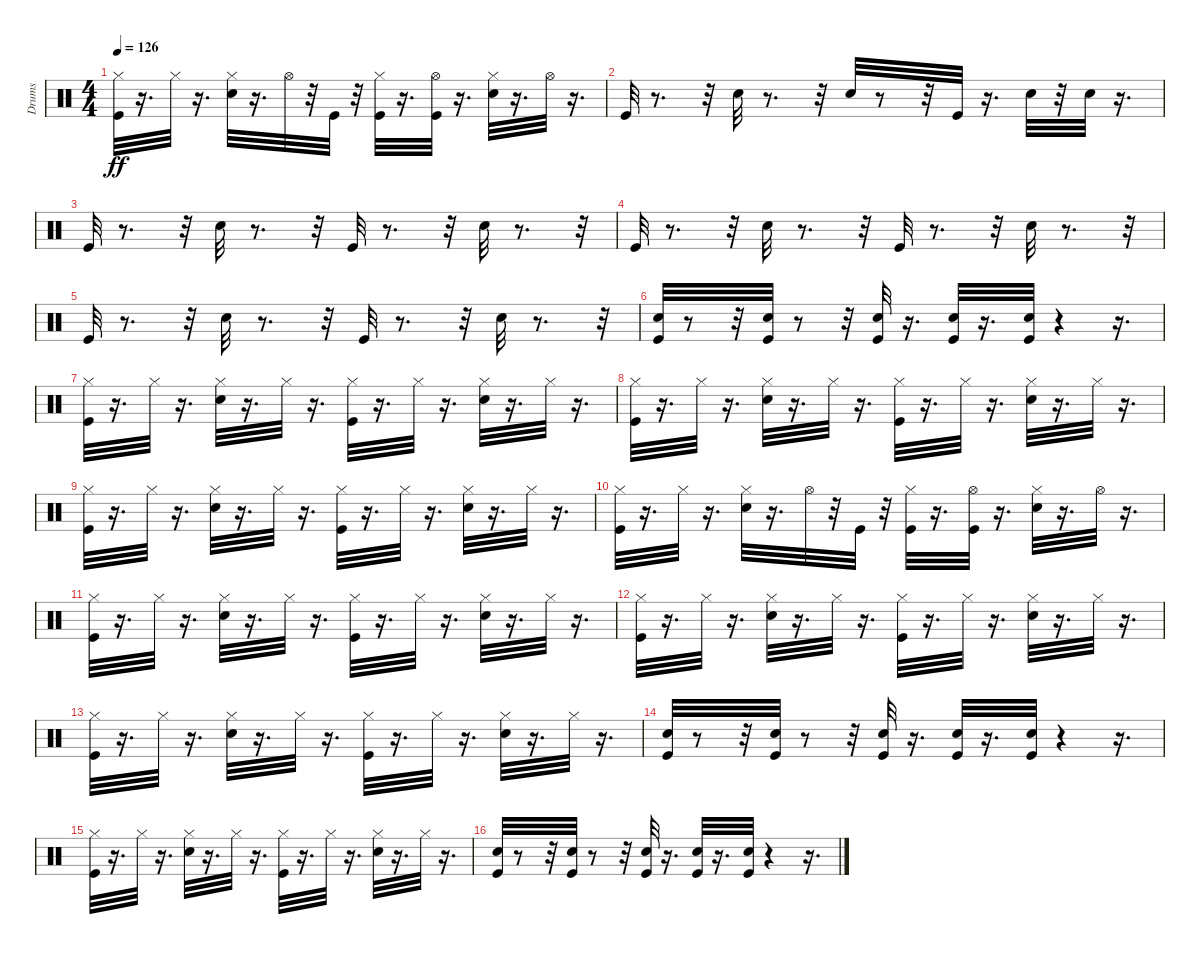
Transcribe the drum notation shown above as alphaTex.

\track ("Drums" "Drums") {instrument percussion}
\staff {score}
\articulation defaults
\ts (4 4)
\tempo 126
\clef neutral
\ks c
("Kick (hit)" "Hi-Hat (closed)").32{dy ff} r.16{d} "Hi-Hat (closed)".32 r.16{d} ("Snare (hit) 2" "Hi-Hat (closed)").32 r.16{d} "Hi-Hat (open)".32 r.32 "Kick (hit)".32 r.32 ("Kick (hit)" "Hi-Hat (closed)").32 r.16{d} ("Kick (hit)" "Hi-Hat (open)").32 r.16{d} ("Snare (hit) 2" "Hi-Hat (closed)").32 r.16{d} "Hi-Hat (open)".32 r.16{d} |
"Kick (hit)".32 r.8{d} r.32 "Snare (hit) 2".32 r.8{d} r.32 "Snare (hit) 2".32 r.8 r.32 "Kick (hit)".32 r.16{d} "Snare (hit) 2".32 r.32 "Snare (hit) 2".32 r.16{d} |
"Kick (hit)".32 r.8{d} r.32 "Snare (hit) 2".32 r.8{d} r.32 "Kick (hit)".32 r.8{d} r.32 "Snare (hit) 2".32 r.8{d} r.32 |
"Kick (hit)".32 r.8{d} r.32 "Snare (hit) 2".32 r.8{d} r.32 "Kick (hit)".32 r.8{d} r.32 "Snare (hit) 2".32 r.8{d} r.32 |
"Kick (hit)".32 r.8{d} r.32 "Snare (hit) 2".32 r.8{d} r.32 "Kick (hit)".32 r.8{d} r.32 "Snare (hit) 2".32 r.8{d} r.32 |
("Kick (hit)" "Snare (hit) 2").32 r.8 r.32 ("Kick (hit)" "Snare (hit) 2").32 r.8 r.32 ("Kick (hit)" "Snare (hit) 2").32 r.16{d} ("Kick (hit)" "Snare (hit) 2").32 r.16{d} ("Kick (hit)" "Snare (hit) 2").32 r.4 r.16{d} |
("Kick (hit)" "Hi-Hat (closed)").32 r.16{d} "Hi-Hat (closed)".32 r.16{d} ("Snare (hit) 2" "Hi-Hat (closed)").32 r.16{d} "Hi-Hat (closed)".32 r.16{d} ("Kick (hit)" "Hi-Hat (closed)").32 r.16{d} "Hi-Hat (closed)".32 r.16{d} ("Snare (hit) 2" "Hi-Hat (closed)").32 r.16{d} "Hi-Hat (closed)".32 r.16{d} |
("Kick (hit)" "Hi-Hat (closed)").32 r.16{d} "Hi-Hat (closed)".32 r.16{d} ("Snare (hit) 2" "Hi-Hat (closed)").32 r.16{d} "Hi-Hat (closed)".32 r.16{d} ("Kick (hit)" "Hi-Hat (closed)").32 r.16{d} "Hi-Hat (closed)".32 r.16{d} ("Snare (hit) 2" "Hi-Hat (closed)").32 r.16{d} "Hi-Hat (closed)".32 r.16{d} |
("Kick (hit)" "Hi-Hat (closed)").32 r.16{d} "Hi-Hat (closed)".32 r.16{d} ("Snare (hit) 2" "Hi-Hat (closed)").32 r.16{d} "Hi-Hat (closed)".32 r.16{d} ("Kick (hit)" "Hi-Hat (closed)").32 r.16{d} "Hi-Hat (closed)".32 r.16{d} ("Snare (hit) 2" "Hi-Hat (closed)").32 r.16{d} "Hi-Hat (closed)".32 r.16{d} |
("Kick (hit)" "Hi-Hat (closed)").32 r.16{d} "Hi-Hat (closed)".32 r.16{d} ("Snare (hit) 2" "Hi-Hat (closed)").32 r.16{d} "Hi-Hat (open)".32 r.32 "Kick (hit)".32 r.32 ("Kick (hit)" "Hi-Hat (closed)").32 r.16{d} ("Kick (hit)" "Hi-Hat (open)").32 r.16{d} ("Snare (hit) 2" "Hi-Hat (closed)").32 r.16{d} "Hi-Hat (open)".32 r.16{d} |
("Kick (hit)" "Hi-Hat (closed)").32 r.16{d} "Hi-Hat (closed)".32 r.16{d} ("Snare (hit) 2" "Hi-Hat (closed)").32 r.16{d} "Hi-Hat (closed)".32 r.16{d} ("Kick (hit)" "Hi-Hat (closed)").32 r.16{d} "Hi-Hat (closed)".32 r.16{d} ("Snare (hit) 2" "Hi-Hat (closed)").32 r.16{d} "Hi-Hat (closed)".32 r.16{d} |
("Kick (hit)" "Hi-Hat (closed)").32 r.16{d} "Hi-Hat (closed)".32 r.16{d} ("Snare (hit) 2" "Hi-Hat (closed)").32 r.16{d} "Hi-Hat (closed)".32 r.16{d} ("Kick (hit)" "Hi-Hat (closed)").32 r.16{d} "Hi-Hat (closed)".32 r.16{d} ("Snare (hit) 2" "Hi-Hat (closed)").32 r.16{d} "Hi-Hat (closed)".32 r.16{d} |
("Kick (hit)" "Hi-Hat (closed)").32 r.16{d} "Hi-Hat (closed)".32 r.16{d} ("Snare (hit) 2" "Hi-Hat (closed)").32 r.16{d} "Hi-Hat (closed)".32 r.16{d} ("Kick (hit)" "Hi-Hat (closed)").32 r.16{d} "Hi-Hat (closed)".32 r.16{d} ("Snare (hit) 2" "Hi-Hat (closed)").32 r.16{d} "Hi-Hat (closed)".32 r.16{d} |
("Kick (hit)" "Snare (hit) 2").32 r.8 r.32 ("Kick (hit)" "Snare (hit) 2").32 r.8 r.32 ("Kick (hit)" "Snare (hit) 2").32 r.16{d} ("Kick (hit)" "Snare (hit) 2").32 r.16{d} ("Kick (hit)" "Snare (hit) 2").32 r.4 r.16{d} |
("Kick (hit)" "Hi-Hat (closed)").32 r.16{d} "Hi-Hat (closed)".32 r.16{d} ("Snare (hit) 2" "Hi-Hat (closed)").32 r.16{d} "Hi-Hat (closed)".32 r.16{d} ("Kick (hit)" "Hi-Hat (closed)").32 r.16{d} "Hi-Hat (closed)".32 r.16{d} ("Snare (hit) 2" "Hi-Hat (closed)").32 r.16{d} "Hi-Hat (closed)".32 r.16{d} |
("Kick (hit)" "Snare (hit) 2").32 r.8 r.32 ("Kick (hit)" "Snare (hit) 2").32 r.8 r.32 ("Kick (hit)" "Snare (hit) 2").32 r.16{d} ("Kick (hit)" "Snare (hit) 2").32 r.16{d} ("Kick (hit)" "Snare (hit) 2").32 r.4 r.16{d}
